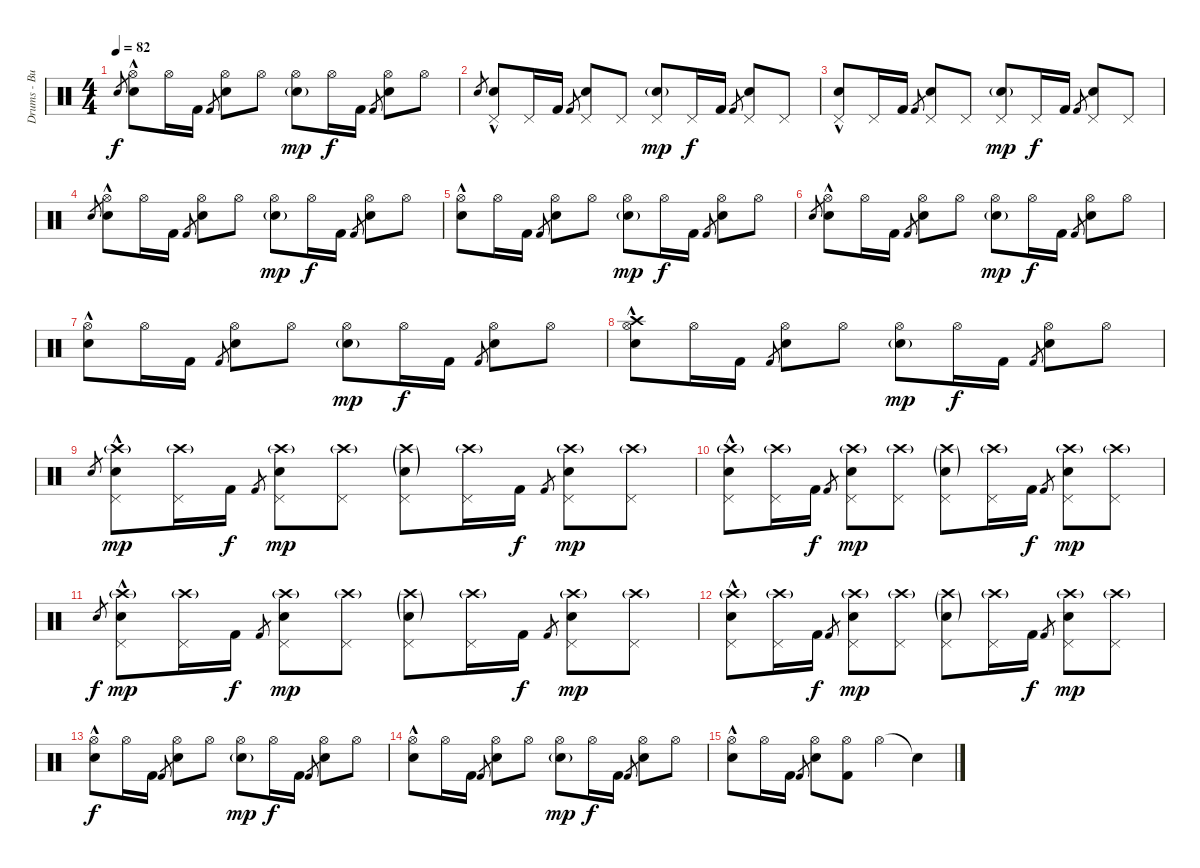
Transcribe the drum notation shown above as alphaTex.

\track ("Drums - Buddy" "Drums - Bu") {instrument percussion}
\staff {score}
\articulation defaults
\ts (4 4)
\tempo 82
\clef neutral
\ks c "Electric Snare (hit)".8{gr dy f}
("Electric Snare (hit)" "Hi-Hat (open)"{hac}).8 "Hi-Hat (open)".16 "Kick (hit) 2".16 "Kick (hit) 2".8{gr} ("Electric Snare (hit)" "Hi-Hat (open)").8 "Hi-Hat (open)".8 ("Electric Snare (hit)"{g} "Hi-Hat (open)").8{dy mp} "Hi-Hat (open)".16{dy f} "Kick (hit) 2".16 "Kick (hit) 2".8{gr} ("Electric Snare (hit)" "Hi-Hat (open)").8 "Hi-Hat (open)".8 |
"Electric Snare (hit)".8{gr} ("Electric Snare (hit)" "Pedal Hi-Hat (hit)"{hac}).8 "Pedal Hi-Hat (hit)".16 "Kick (hit) 2".16 "Kick (hit) 2".8{gr} ("Electric Snare (hit)" "Pedal Hi-Hat (hit)").8 "Pedal Hi-Hat (hit)".8 ("Electric Snare (hit)"{g} "Pedal Hi-Hat (hit)").8{dy mp} "Pedal Hi-Hat (hit)".16{dy f} "Kick (hit) 2".16 "Kick (hit) 2".8{gr} ("Electric Snare (hit)" "Pedal Hi-Hat (hit)").8 "Pedal Hi-Hat (hit)".8 |
("Electric Snare (hit)" "Pedal Hi-Hat (hit)"{hac}).8 "Pedal Hi-Hat (hit)".16 "Kick (hit) 2".16 "Kick (hit) 2".8{gr} ("Electric Snare (hit)" "Pedal Hi-Hat (hit)").8 "Pedal Hi-Hat (hit)".8 ("Electric Snare (hit)"{g} "Pedal Hi-Hat (hit)").8{dy mp} "Pedal Hi-Hat (hit)".16{dy f} "Kick (hit) 2".16 "Kick (hit) 2".8{gr} ("Electric Snare (hit)" "Pedal Hi-Hat (hit)").8 "Pedal Hi-Hat (hit)".8 |
"Electric Snare (hit)".8{gr} ("Electric Snare (hit)" "Hi-Hat (open)"{hac}).8 "Hi-Hat (open)".16 "Kick (hit) 2".16 "Kick (hit) 2".8{gr} ("Electric Snare (hit)" "Hi-Hat (open)").8 "Hi-Hat (open)".8 ("Electric Snare (hit)"{g} "Hi-Hat (open)").8{dy mp} "Hi-Hat (open)".16{dy f} "Kick (hit) 2".16 "Kick (hit) 2".8{gr} ("Electric Snare (hit)" "Hi-Hat (open)").8 "Hi-Hat (open)".8 |
("Electric Snare (hit)" "Hi-Hat (open)"{hac}).8 "Hi-Hat (open)".16 "Kick (hit) 2".16 "Kick (hit) 2".8{gr} ("Electric Snare (hit)" "Hi-Hat (open)").8 "Hi-Hat (open)".8 ("Electric Snare (hit)"{g} "Hi-Hat (open)").8{dy mp} "Hi-Hat (open)".16{dy f} "Kick (hit) 2".16 "Kick (hit) 2".8{gr} ("Electric Snare (hit)" "Hi-Hat (open)").8 "Hi-Hat (open)".8 |
"Electric Snare (hit)".8{gr} ("Electric Snare (hit)" "Hi-Hat (open)"{hac}).8 "Hi-Hat (open)".16 "Kick (hit) 2".16 "Kick (hit) 2".8{gr} ("Electric Snare (hit)" "Hi-Hat (open)").8 "Hi-Hat (open)".8 ("Electric Snare (hit)"{g} "Hi-Hat (open)").8{dy mp} "Hi-Hat (open)".16{dy f} "Kick (hit) 2".16 "Kick (hit) 2".8{gr} ("Electric Snare (hit)" "Hi-Hat (open)").8 "Hi-Hat (open)".8 |
("Electric Snare (hit)" "Hi-Hat (open)"{hac}).8 "Hi-Hat (open)".16 "Kick (hit) 2".16 "Kick (hit) 2".8{gr} ("Electric Snare (hit)" "Hi-Hat (open)").8 "Hi-Hat (open)".8 ("Electric Snare (hit)"{g} "Hi-Hat (open)").8{dy mp} "Hi-Hat (open)".16{dy f} "Kick (hit) 2".16 "Kick (hit) 2".8{gr} ("Electric Snare (hit)" "Hi-Hat (open)").8 "Hi-Hat (open)".8 |
("Crash high (hit)" "Electric Snare (hit)" "Hi-Hat (open)"{hac}).8 "Hi-Hat (open)".16 "Kick (hit) 2".16 "Kick (hit) 2".8{gr} ("Electric Snare (hit)" "Hi-Hat (open)").8 "Hi-Hat (open)".8 ("Electric Snare (hit)"{g} "Hi-Hat (open)").8{dy mp} "Hi-Hat (open)".16{dy f} "Kick (hit) 2".16 "Kick (hit) 2".8{gr} ("Electric Snare (hit)" "Hi-Hat (open)").8 "Hi-Hat (open)".8 |
"Electric Snare (hit)".8{gr} ("Crash high (hit)"{g} "Electric Snare (hit)" "Pedal Hi-Hat (hit)"{hac}).8{dy mp} ("Crash high (hit)"{g} "Pedal Hi-Hat (hit)").16 "Kick (hit) 2".16{dy f} "Kick (hit) 2".8{gr} ("Crash high (hit)"{g} "Electric Snare (hit)" "Pedal Hi-Hat (hit)").8{dy mp} ("Crash high (hit)"{g} "Pedal Hi-Hat (hit)").8 ("Crash high (hit)"{g} "Electric Snare (hit)"{g} "Pedal Hi-Hat (hit)").8 ("Crash high (hit)"{g} "Pedal Hi-Hat (hit)").16 "Kick (hit) 2".16{dy f} "Kick (hit) 2".8{gr} ("Crash high (hit)"{g} "Electric Snare (hit)" "Pedal Hi-Hat (hit)").8{dy mp} ("Crash high (hit)"{g} "Pedal Hi-Hat (hit)").8 |
("Crash high (hit)"{g} "Electric Snare (hit)" "Pedal Hi-Hat (hit)"{hac}).8 ("Crash high (hit)"{g} "Pedal Hi-Hat (hit)").16 "Kick (hit) 2".16{dy f} "Kick (hit) 2".8{gr} ("Crash high (hit)"{g} "Electric Snare (hit)" "Pedal Hi-Hat (hit)").8{dy mp} ("Crash high (hit)"{g} "Pedal Hi-Hat (hit)").8 ("Crash high (hit)"{g} "Electric Snare (hit)"{g} "Pedal Hi-Hat (hit)").8 ("Crash high (hit)"{g} "Pedal Hi-Hat (hit)").16 "Kick (hit) 2".16{dy f} "Kick (hit) 2".8{gr} ("Crash high (hit)"{g} "Electric Snare (hit)" "Pedal Hi-Hat (hit)").8{dy mp} ("Crash high (hit)"{g} "Pedal Hi-Hat (hit)").8 |
"Electric Snare (hit)".8{gr dy f} ("Crash high (hit)"{g} "Electric Snare (hit)" "Pedal Hi-Hat (hit)"{hac}).8{dy mp} ("Crash high (hit)"{g} "Pedal Hi-Hat (hit)").16 "Kick (hit) 2".16{dy f} "Kick (hit) 2".8{gr} ("Crash high (hit)"{g} "Electric Snare (hit)" "Pedal Hi-Hat (hit)").8{dy mp} ("Crash high (hit)"{g} "Pedal Hi-Hat (hit)").8 ("Crash high (hit)"{g} "Electric Snare (hit)"{g} "Pedal Hi-Hat (hit)").8 ("Crash high (hit)"{g} "Pedal Hi-Hat (hit)").16 "Kick (hit) 2".16{dy f} "Kick (hit) 2".8{gr} ("Crash high (hit)"{g} "Electric Snare (hit)" "Pedal Hi-Hat (hit)").8{dy mp} ("Crash high (hit)"{g} "Pedal Hi-Hat (hit)").8 |
("Crash high (hit)"{g} "Electric Snare (hit)" "Pedal Hi-Hat (hit)"{hac}).8 ("Crash high (hit)"{g} "Pedal Hi-Hat (hit)").16 "Kick (hit) 2".16{dy f} "Kick (hit) 2".8{gr} ("Crash high (hit)"{g} "Electric Snare (hit)" "Pedal Hi-Hat (hit)").8{dy mp} ("Crash high (hit)"{g} "Pedal Hi-Hat (hit)").8 ("Crash high (hit)"{g} "Electric Snare (hit)"{g} "Pedal Hi-Hat (hit)").8 ("Crash high (hit)"{g} "Pedal Hi-Hat (hit)").16 "Kick (hit) 2".16{dy f} "Kick (hit) 2".8{gr} ("Crash high (hit)"{g} "Electric Snare (hit)" "Pedal Hi-Hat (hit)").8{dy mp} ("Crash high (hit)"{g} "Pedal Hi-Hat (hit)").8 |
("Electric Snare (hit)" "Hi-Hat (open)"{hac}).8{dy f} "Hi-Hat (open)".16 "Kick (hit) 2".16 "Kick (hit) 2".8{gr} ("Electric Snare (hit)" "Hi-Hat (open)").8 "Hi-Hat (open)".8 ("Electric Snare (hit)"{g} "Hi-Hat (open)").8{dy mp} "Hi-Hat (open)".16{dy f} "Kick (hit) 2".16 "Kick (hit) 2".8{gr} ("Electric Snare (hit)" "Hi-Hat (open)").8 "Hi-Hat (open)".8 |
("Electric Snare (hit)" "Hi-Hat (open)"{hac}).8 "Hi-Hat (open)".16 "Kick (hit) 2".16 "Kick (hit) 2".8{gr} ("Electric Snare (hit)" "Hi-Hat (open)").8 "Hi-Hat (open)".8 ("Electric Snare (hit)"{g} "Hi-Hat (open)").8{dy mp} "Hi-Hat (open)".16{dy f} "Kick (hit) 2".16 "Kick (hit) 2".8{gr} ("Electric Snare (hit)" "Hi-Hat (open)").8 "Hi-Hat (open)".8 |
("Electric Snare (hit)" "Hi-Hat (open)"{hac}).8 "Hi-Hat (open)".16 "Kick (hit) 2".16 "Kick (hit) 2".8{gr} ("Electric Snare (hit)" "Hi-Hat (open)").8 ("Hi-Hat (open)" "Kick (hit) 2").8 "Hi-Hat (open)".4 "Snare (hit)"{t}.4
